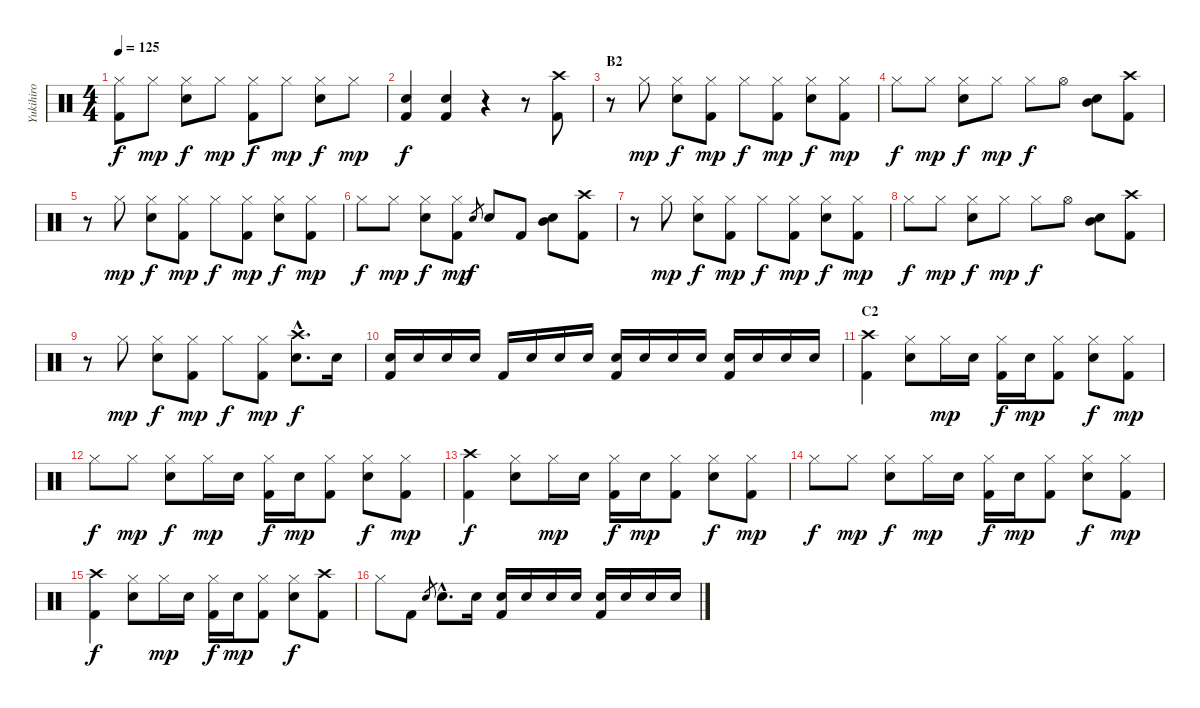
\track ("Yukihiro" "Yukihiro") {instrument percussion}
\staff {score}
\articulation defaults
\ts (4 4)
\tempo 125
\clef neutral
\ks c
("Hi-Hat (closed)" "Kick (hit) 2").8{dy f} "Hi-Hat (closed)".8{dy mp} ("Hi-Hat (closed)" "Electric Snare (hit)").8{dy f} "Hi-Hat (closed)".8{dy mp} ("Hi-Hat (closed)" "Kick (hit) 2").8{dy f} "Hi-Hat (closed)".8{dy mp} ("Hi-Hat (closed)" "Electric Snare (hit)").8{dy f} "Hi-Hat (closed)".8{dy mp} |
("Electric Snare (hit)" "Kick (hit) 2").4{dy f} ("Electric Snare (hit)" "Kick (hit) 2").4 r.4 r.8 ("Crash high (hit)" "Kick (hit) 2").8 |
\section ("" "B2")
r.8 "Hi-Hat (closed)".8{dy mp} ("Hi-Hat (closed)" "Electric Snare (hit)").8{dy f} ("Hi-Hat (closed)" "Kick (hit) 2").8{dy mp} "Hi-Hat (closed)".8{dy f} ("Hi-Hat (closed)" "Kick (hit) 2").8{dy mp} ("Hi-Hat (closed)" "Electric Snare (hit)").8{dy f} ("Hi-Hat (closed)" "Kick (hit) 2").8{dy mp} |
"Hi-Hat (closed)".8{dy f} "Hi-Hat (closed)".8{dy mp} ("Hi-Hat (closed)" "Electric Snare (hit)").8{dy f} "Hi-Hat (closed)".8{dy mp} "Hi-Hat (closed)".8{dy f} "Hi-Hat (open)".8 ("Electric Snare (hit)" "Mid Tom (hit)").8 ("Crash high (hit)" "Kick (hit) 2").8 |
r.8 "Hi-Hat (closed)".8{dy mp} ("Hi-Hat (closed)" "Electric Snare (hit)").8{dy f} ("Hi-Hat (closed)" "Kick (hit) 2").8{dy mp} "Hi-Hat (closed)".8{dy f} ("Hi-Hat (closed)" "Kick (hit) 2").8{dy mp} ("Hi-Hat (closed)" "Electric Snare (hit)").8{dy f} ("Hi-Hat (closed)" "Kick (hit) 2").8{dy mp} |
"Hi-Hat (closed)".8{dy f} "Hi-Hat (closed)".8{dy mp} ("Hi-Hat (closed)" "Electric Snare (hit)").8{dy f} ("Hi-Hat (closed)" "Kick (hit) 2").8{dy mp} "Electric Snare (hit)".8{gr dy f} "Electric Snare (hit)".8 "Kick (hit) 2".8 ("Electric Snare (hit)" "Mid Tom (hit)").8 ("Crash high (hit)" "Kick (hit) 2").8 |
r.8 "Hi-Hat (closed)".8{dy mp} ("Hi-Hat (closed)" "Electric Snare (hit)").8{dy f} ("Hi-Hat (closed)" "Kick (hit) 2").8{dy mp} "Hi-Hat (closed)".8{dy f} ("Hi-Hat (closed)" "Kick (hit) 2").8{dy mp} ("Hi-Hat (closed)" "Electric Snare (hit)").8{dy f} ("Hi-Hat (closed)" "Kick (hit) 2").8{dy mp} |
"Hi-Hat (closed)".8{dy f} "Hi-Hat (closed)".8{dy mp} ("Hi-Hat (closed)" "Electric Snare (hit)").8{dy f} "Hi-Hat (closed)".8{dy mp} "Hi-Hat (closed)".8{dy f} "Hi-Hat (open)".8 ("Electric Snare (hit)" "Mid Tom (hit)").8 ("Crash high (hit)" "Kick (hit) 2").8 |
r.8 "Hi-Hat (closed)".8{dy mp} ("Hi-Hat (closed)" "Electric Snare (hit)").8{dy f} ("Hi-Hat (closed)" "Kick (hit) 2").8{dy mp} "Hi-Hat (closed)".8{dy f} ("Hi-Hat (closed)" "Kick (hit) 2").8{dy mp} ("Crash high (hit)"{hac} "Electric Snare (hit)"{hac}).8{d dy f} "Electric Snare (hit)".16 |
("Electric Snare (hit)" "Kick (hit) 2").16 "Electric Snare (hit)".16 "Electric Snare (hit)".16 "Electric Snare (hit)".16 "Kick (hit) 2".16 "Electric Snare (hit)".16 "Electric Snare (hit)".16 "Electric Snare (hit)".16 ("Electric Snare (hit)" "Kick (hit) 2").16 "Electric Snare (hit)".16 "Electric Snare (hit)".16 "Electric Snare (hit)".16 ("Electric Snare (hit)" "Kick (hit) 2").16 "Electric Snare (hit)".16 "Electric Snare (hit)".16 "Electric Snare (hit)".16 |
\section ("" "C2")
("Crash high (hit)" "Kick (hit) 2").4 ("Hi-Hat (closed)" "Electric Snare (hit)").8 "Hi-Hat (closed)".16{dy mp} "Electric Snare (hit)".16 ("Hi-Hat (closed)" "Kick (hit) 2").16{dy f} "Electric Snare (hit)".16{dy mp} ("Hi-Hat (closed)" "Kick (hit) 2").8 ("Hi-Hat (closed)" "Electric Snare (hit)").8{dy f} ("Hi-Hat (closed)" "Kick (hit) 2").8{dy mp} |
"Hi-Hat (closed)".8{dy f} "Hi-Hat (closed)".8{dy mp} ("Hi-Hat (closed)" "Electric Snare (hit)").8{dy f} "Hi-Hat (closed)".16{dy mp} "Electric Snare (hit)".16 ("Hi-Hat (closed)" "Kick (hit) 2").16{dy f} "Electric Snare (hit)".16{dy mp} ("Hi-Hat (closed)" "Kick (hit) 2").8 ("Hi-Hat (closed)" "Electric Snare (hit)").8{dy f} ("Hi-Hat (closed)" "Kick (hit) 2").8{dy mp} |
("Crash high (hit)" "Kick (hit) 2").4{dy f} ("Hi-Hat (closed)" "Electric Snare (hit)").8 "Hi-Hat (closed)".16{dy mp} "Electric Snare (hit)".16 ("Hi-Hat (closed)" "Kick (hit) 2").16{dy f} "Electric Snare (hit)".16{dy mp} ("Hi-Hat (closed)" "Kick (hit) 2").8 ("Hi-Hat (closed)" "Electric Snare (hit)").8{dy f} ("Hi-Hat (closed)" "Kick (hit) 2").8{dy mp} |
"Hi-Hat (closed)".8{dy f} "Hi-Hat (closed)".8{dy mp} ("Hi-Hat (closed)" "Electric Snare (hit)").8{dy f} "Hi-Hat (closed)".16{dy mp} "Electric Snare (hit)".16 ("Hi-Hat (closed)" "Kick (hit) 2").16{dy f} "Electric Snare (hit)".16{dy mp} ("Hi-Hat (closed)" "Kick (hit) 2").8 ("Hi-Hat (closed)" "Electric Snare (hit)").8{dy f} ("Hi-Hat (closed)" "Kick (hit) 2").8{dy mp} |
("Crash high (hit)" "Kick (hit) 2").4{dy f} ("Hi-Hat (closed)" "Electric Snare (hit)").8 "Hi-Hat (closed)".16{dy mp} "Electric Snare (hit)".16 ("Hi-Hat (closed)" "Kick (hit) 2").16{dy f} "Electric Snare (hit)".16{dy mp} ("Hi-Hat (closed)" "Kick (hit) 2").8 ("Hi-Hat (closed)" "Electric Snare (hit)").8{dy f} ("Crash high (hit)" "Kick (hit) 2").8 |
"Hi-Hat (closed)".8 "Kick (hit) 2".8 "Electric Snare (hit)".8{gr} "Electric Snare (hit)"{hac}.8{d} "Electric Snare (hit)".16 ("Electric Snare (hit)" "Kick (hit) 2").16 "Electric Snare (hit)".16 "Electric Snare (hit)".16 "Electric Snare (hit)".16 ("Electric Snare (hit)" "Kick (hit) 2").16 "Electric Snare (hit)".16 "Electric Snare (hit)".16 "Electric Snare (hit)".16
